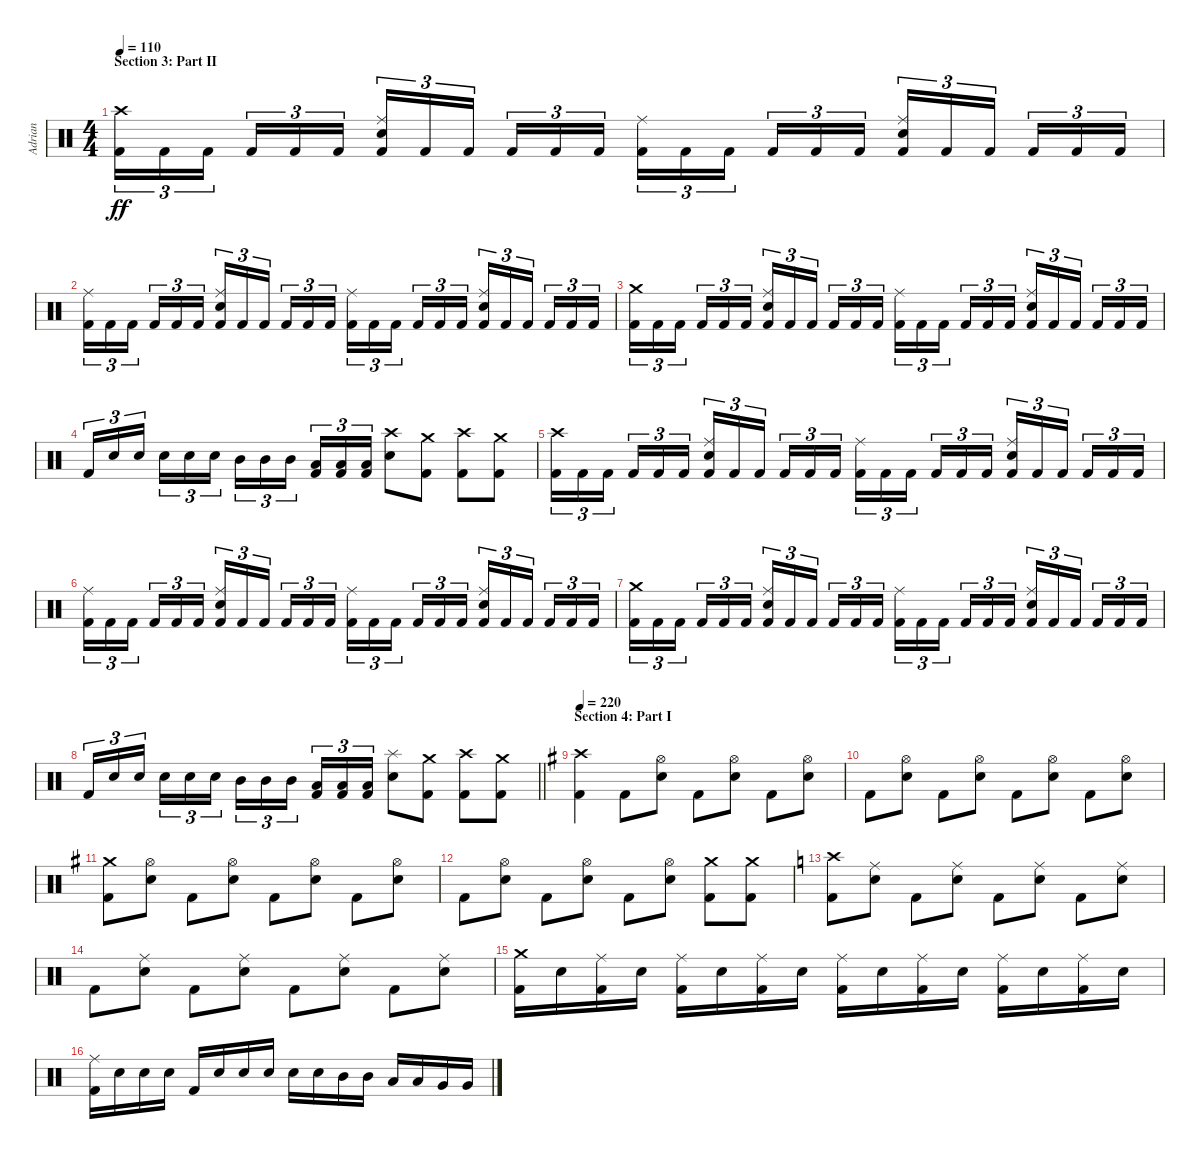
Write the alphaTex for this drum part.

\track ("Adrian" "Adrian") {instrument percussion}
\staff {score}
\articulation defaults
\ts (4 4)
\section ("" "Section 3: Part II")
\tempo 110
\clef neutral
\ks c
("Crash high (hit)" "Kick (hit) 2").16{tu (3 2) dy ff} "Kick (hit) 2".16{tu (3 2)} "Kick (hit) 2".16{tu (3 2) beam splitsecondary} "Kick (hit) 2".16{tu (3 2)} "Kick (hit) 2".16{tu (3 2)} "Kick (hit) 2".16{tu (3 2)} ("Ride (middle)" "Electric Snare (hit)" "Kick (hit) 2").16{tu (3 2)} "Kick (hit) 2".16{tu (3 2)} "Kick (hit) 2".16{tu (3 2) beam splitsecondary} "Kick (hit) 2".16{tu (3 2)} "Kick (hit) 2".16{tu (3 2)} "Kick (hit) 2".16{tu (3 2)} ("Ride (middle)" "Kick (hit) 2").16{tu (3 2)} "Kick (hit) 2".16{tu (3 2)} "Kick (hit) 2".16{tu (3 2) beam splitsecondary} "Kick (hit) 2".16{tu (3 2)} "Kick (hit) 2".16{tu (3 2)} "Kick (hit) 2".16{tu (3 2)} ("Ride (middle)" "Electric Snare (hit)" "Kick (hit) 2").16{tu (3 2)} "Kick (hit) 2".16{tu (3 2)} "Kick (hit) 2".16{tu (3 2) beam splitsecondary} "Kick (hit) 2".16{tu (3 2)} "Kick (hit) 2".16{tu (3 2)} "Kick (hit) 2".16{tu (3 2)} |
("Ride (middle)" "Kick (hit) 2").16{tu (3 2)} "Kick (hit) 2".16{tu (3 2)} "Kick (hit) 2".16{tu (3 2) beam splitsecondary} "Kick (hit) 2".16{tu (3 2)} "Kick (hit) 2".16{tu (3 2)} "Kick (hit) 2".16{tu (3 2)} ("Ride (middle)" "Electric Snare (hit)" "Kick (hit) 2").16{tu (3 2)} "Kick (hit) 2".16{tu (3 2)} "Kick (hit) 2".16{tu (3 2) beam splitsecondary} "Kick (hit) 2".16{tu (3 2)} "Kick (hit) 2".16{tu (3 2)} "Kick (hit) 2".16{tu (3 2)} ("Ride (middle)" "Kick (hit) 2").16{tu (3 2)} "Kick (hit) 2".16{tu (3 2)} "Kick (hit) 2".16{tu (3 2) beam splitsecondary} "Kick (hit) 2".16{tu (3 2)} "Kick (hit) 2".16{tu (3 2)} "Kick (hit) 2".16{tu (3 2)} ("Ride (middle)" "Electric Snare (hit)" "Kick (hit) 2").16{tu (3 2)} "Kick (hit) 2".16{tu (3 2)} "Kick (hit) 2".16{tu (3 2) beam splitsecondary} "Kick (hit) 2".16{tu (3 2)} "Kick (hit) 2".16{tu (3 2)} "Kick (hit) 2".16{tu (3 2)} |
("Crash medium (hit)" "Kick (hit) 2").16{tu (3 2)} "Kick (hit) 2".16{tu (3 2)} "Kick (hit) 2".16{tu (3 2) beam splitsecondary} "Kick (hit) 2".16{tu (3 2)} "Kick (hit) 2".16{tu (3 2)} "Kick (hit) 2".16{tu (3 2)} ("Ride (middle)" "Electric Snare (hit)" "Kick (hit) 2").16{tu (3 2)} "Kick (hit) 2".16{tu (3 2)} "Kick (hit) 2".16{tu (3 2) beam splitsecondary} "Kick (hit) 2".16{tu (3 2)} "Kick (hit) 2".16{tu (3 2)} "Kick (hit) 2".16{tu (3 2)} ("Ride (middle)" "Kick (hit) 2").16{tu (3 2)} "Kick (hit) 2".16{tu (3 2)} "Kick (hit) 2".16{tu (3 2) beam splitsecondary} "Kick (hit) 2".16{tu (3 2)} "Kick (hit) 2".16{tu (3 2)} "Kick (hit) 2".16{tu (3 2)} ("Ride (middle)" "Electric Snare (hit)" "Kick (hit) 2").16{tu (3 2)} "Kick (hit) 2".16{tu (3 2)} "Kick (hit) 2".16{tu (3 2) beam splitsecondary} "Kick (hit) 2".16{tu (3 2)} "Kick (hit) 2".16{tu (3 2)} "Kick (hit) 2".16{tu (3 2)} |
"Kick (hit) 2".16{tu (3 2)} "Electric Snare (hit)".16{tu (3 2)} "Electric Snare (hit)".16{tu (3 2) beam splitsecondary} "Electric Snare (hit)".16{tu (3 2)} "Electric Snare (hit)".16{tu (3 2)} "Electric Snare (hit)".16{tu (3 2)} "Mid Tom (hit)".16{tu (3 2)} "Mid Tom (hit)".16{tu (3 2)} "Mid Tom (hit)".16{tu (3 2) beam splitsecondary} ("Low Tom (hit)" "Kick (hit) 2").16{tu (3 2)} ("Low Tom (hit)" "Kick (hit) 2").16{tu (3 2)} ("Low Tom (hit)" "Kick (hit) 2").16{tu (3 2)} ("Crash high (hit)" "Electric Snare (hit)").8 ("Crash medium (hit)" "Kick (hit) 2").8 ("Crash high (hit)" "Kick (hit) 2").8 ("Crash medium (hit)" "Kick (hit) 2").8 |
("Crash high (hit)" "Kick (hit) 2").16{tu (3 2)} "Kick (hit) 2".16{tu (3 2)} "Kick (hit) 2".16{tu (3 2) beam splitsecondary} "Kick (hit) 2".16{tu (3 2)} "Kick (hit) 2".16{tu (3 2)} "Kick (hit) 2".16{tu (3 2)} ("Ride (middle)" "Electric Snare (hit)" "Kick (hit) 2").16{tu (3 2)} "Kick (hit) 2".16{tu (3 2)} "Kick (hit) 2".16{tu (3 2) beam splitsecondary} "Kick (hit) 2".16{tu (3 2)} "Kick (hit) 2".16{tu (3 2)} "Kick (hit) 2".16{tu (3 2)} ("Ride (middle)" "Kick (hit) 2").16{tu (3 2)} "Kick (hit) 2".16{tu (3 2)} "Kick (hit) 2".16{tu (3 2) beam splitsecondary} "Kick (hit) 2".16{tu (3 2)} "Kick (hit) 2".16{tu (3 2)} "Kick (hit) 2".16{tu (3 2)} ("Ride (middle)" "Electric Snare (hit)" "Kick (hit) 2").16{tu (3 2)} "Kick (hit) 2".16{tu (3 2)} "Kick (hit) 2".16{tu (3 2) beam splitsecondary} "Kick (hit) 2".16{tu (3 2)} "Kick (hit) 2".16{tu (3 2)} "Kick (hit) 2".16{tu (3 2)} |
("Ride (middle)" "Kick (hit) 2").16{tu (3 2)} "Kick (hit) 2".16{tu (3 2)} "Kick (hit) 2".16{tu (3 2) beam splitsecondary} "Kick (hit) 2".16{tu (3 2)} "Kick (hit) 2".16{tu (3 2)} "Kick (hit) 2".16{tu (3 2)} ("Ride (middle)" "Electric Snare (hit)" "Kick (hit) 2").16{tu (3 2)} "Kick (hit) 2".16{tu (3 2)} "Kick (hit) 2".16{tu (3 2) beam splitsecondary} "Kick (hit) 2".16{tu (3 2)} "Kick (hit) 2".16{tu (3 2)} "Kick (hit) 2".16{tu (3 2)} ("Ride (middle)" "Kick (hit) 2").16{tu (3 2)} "Kick (hit) 2".16{tu (3 2)} "Kick (hit) 2".16{tu (3 2) beam splitsecondary} "Kick (hit) 2".16{tu (3 2)} "Kick (hit) 2".16{tu (3 2)} "Kick (hit) 2".16{tu (3 2)} ("Ride (middle)" "Electric Snare (hit)" "Kick (hit) 2").16{tu (3 2)} "Kick (hit) 2".16{tu (3 2)} "Kick (hit) 2".16{tu (3 2) beam splitsecondary} "Kick (hit) 2".16{tu (3 2)} "Kick (hit) 2".16{tu (3 2)} "Kick (hit) 2".16{tu (3 2)} |
("Crash medium (hit)" "Kick (hit) 2").16{tu (3 2)} "Kick (hit) 2".16{tu (3 2)} "Kick (hit) 2".16{tu (3 2) beam splitsecondary} "Kick (hit) 2".16{tu (3 2)} "Kick (hit) 2".16{tu (3 2)} "Kick (hit) 2".16{tu (3 2)} ("Ride (middle)" "Electric Snare (hit)" "Kick (hit) 2").16{tu (3 2)} "Kick (hit) 2".16{tu (3 2)} "Kick (hit) 2".16{tu (3 2) beam splitsecondary} "Kick (hit) 2".16{tu (3 2)} "Kick (hit) 2".16{tu (3 2)} "Kick (hit) 2".16{tu (3 2)} ("Ride (middle)" "Kick (hit) 2").16{tu (3 2)} "Kick (hit) 2".16{tu (3 2)} "Kick (hit) 2".16{tu (3 2) beam splitsecondary} "Kick (hit) 2".16{tu (3 2)} "Kick (hit) 2".16{tu (3 2)} "Kick (hit) 2".16{tu (3 2)} ("Ride (middle)" "Electric Snare (hit)" "Kick (hit) 2").16{tu (3 2)} "Kick (hit) 2".16{tu (3 2)} "Kick (hit) 2".16{tu (3 2) beam splitsecondary} "Kick (hit) 2".16{tu (3 2)} "Kick (hit) 2".16{tu (3 2)} "Kick (hit) 2".16{tu (3 2)} |
\barLineRight lightlight "Kick (hit) 2".16{tu (3 2)} "Electric Snare (hit)".16{tu (3 2)} "Electric Snare (hit)".16{tu (3 2) beam splitsecondary} "Electric Snare (hit)".16{tu (3 2)} "Electric Snare (hit)".16{tu (3 2)} "Electric Snare (hit)".16{tu (3 2)} "Mid Tom (hit)".16{tu (3 2)} "Mid Tom (hit)".16{tu (3 2)} "Mid Tom (hit)".16{tu (3 2) beam splitsecondary}
("Low Tom (hit)" "Kick (hit) 2").16{tu (3 2)} ("Low Tom (hit)" "Kick (hit) 2").16{tu (3 2)} ("Low Tom (hit)" "Kick (hit) 2").16{tu (3 2)} ("Splash (hit)" "Electric Snare (hit)").8 ("Crash medium (hit)" "Kick (hit) 2").8 ("Crash high (hit)" "Kick (hit) 2").8 ("Crash medium (hit)" "Kick (hit) 2").8 |
\section ("" "Section 4: Part I")
\tempo 220
\ks g
("Crash high (hit)" "Kick (hit) 2").4 "Kick (hit) 2".8 ("Hi-Hat (open)" "Electric Snare (hit)").8 "Kick (hit) 2".8 ("Hi-Hat (open)" "Electric Snare (hit)").8 "Kick (hit) 2".8 ("Hi-Hat (open)" "Electric Snare (hit)").8 |
"Kick (hit) 2".8 ("Hi-Hat (open)" "Electric Snare (hit)").8 "Kick (hit) 2".8 ("Hi-Hat (open)" "Electric Snare (hit)").8 "Kick (hit) 2".8 ("Hi-Hat (open)" "Electric Snare (hit)").8 "Kick (hit) 2".8 ("Hi-Hat (open)" "Electric Snare (hit)").8 |
("Crash medium (hit)" "Kick (hit) 2").8 ("Hi-Hat (open)" "Electric Snare (hit)").8 "Kick (hit) 2".8 ("Hi-Hat (open)" "Electric Snare (hit)").8 "Kick (hit) 2".8 ("Hi-Hat (open)" "Electric Snare (hit)").8 "Kick (hit) 2".8 ("Hi-Hat (open)" "Electric Snare (hit)").8 |
"Kick (hit) 2".8 ("Hi-Hat (open)" "Electric Snare (hit)").8 "Kick (hit) 2".8 ("Hi-Hat (open)" "Electric Snare (hit)").8 "Kick (hit) 2".8 ("Hi-Hat (open)" "Electric Snare (hit)").8 ("Crash medium (hit)" "Kick (hit) 2").8 ("Crash medium (hit)" "Kick (hit) 2").8 |
\ks c
("Crash high (hit)" "Kick (hit) 2").8 ("Ride (middle)" "Electric Snare (hit)").8 "Kick (hit) 2".8 ("Ride (middle)" "Electric Snare (hit)").8 "Kick (hit) 2".8 ("Ride (middle)" "Electric Snare (hit)").8 "Kick (hit) 2".8 ("Ride (middle)" "Electric Snare (hit)").8 |
"Kick (hit) 2".8 ("Ride (middle)" "Electric Snare (hit)").8 "Kick (hit) 2".8 ("Ride (middle)" "Electric Snare (hit)").8 "Kick (hit) 2".8 ("Ride (middle)" "Electric Snare (hit)").8 "Kick (hit) 2".8 ("Ride (middle)" "Electric Snare (hit)").8 |
("Crash medium (hit)" "Kick (hit) 2").16 "Electric Snare (hit)".16 ("Ride (middle)" "Kick (hit) 2").16 "Electric Snare (hit)".16 ("Ride (middle)" "Kick (hit) 2").16 "Electric Snare (hit)".16 ("Ride (middle)" "Kick (hit) 2").16 "Electric Snare (hit)".16 ("Ride (middle)" "Kick (hit) 2").16 "Electric Snare (hit)".16 ("Ride (middle)" "Kick (hit) 2").16 "Electric Snare (hit)".16 ("Ride (middle)" "Kick (hit) 2").16 "Electric Snare (hit)".16 ("Ride (middle)" "Kick (hit) 2").16 "Electric Snare (hit)".16 |
("Ride (middle)" "Kick (hit) 2").16 "Electric Snare (hit)".16 "Electric Snare (hit)".16 "Electric Snare (hit)".16 "Kick (hit) 2".16 "Electric Snare (hit)".16 "Electric Snare (hit)".16 "Electric Snare (hit)".16 "Electric Snare (hit)".16 "Electric Snare (hit)".16 "Mid Tom (hit)".16 "Mid Tom (hit)".16 "Low Tom (hit)".16 "Low Tom (hit)".16 "Very Low Tom (hit)".16 "Very Low Tom (hit)".16
